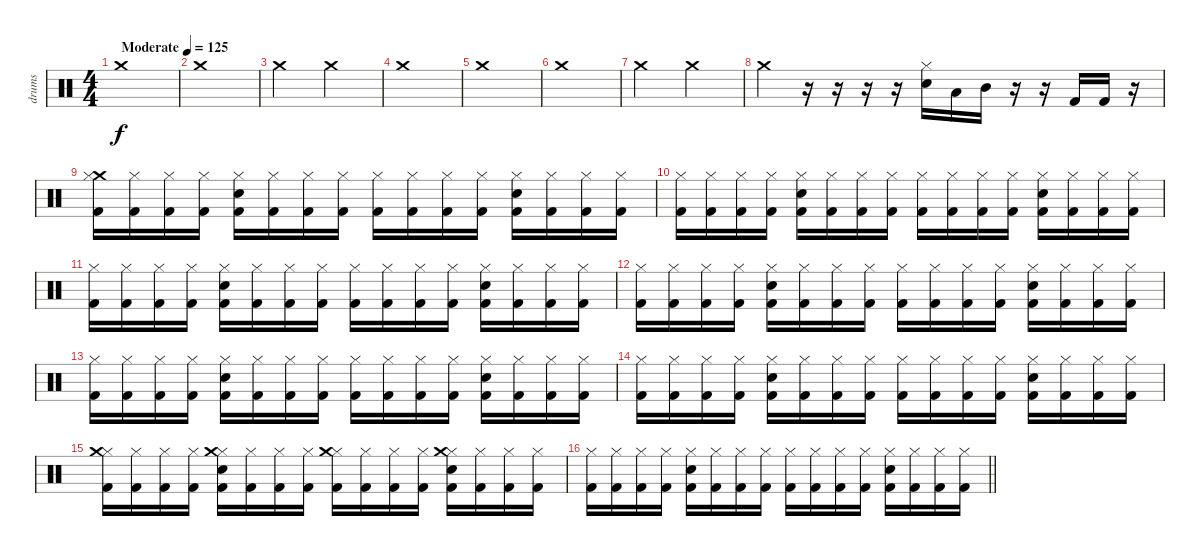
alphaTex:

\track ("drums" "drums") {instrument percussion}
\staff {score}
\articulation defaults
\ts (4 4)
\tempo (125 "Moderate")
\clef neutral
\ks c "Crash medium (hit)".1{dy f}
|
"Crash medium (hit)".1 |
"Crash medium (hit)".2 "Crash medium (hit)".2 |
"Crash medium (hit)".1 |
"Crash medium (hit)".1 |
"Crash medium (hit)".1 |
"Crash medium (hit)".2 "Crash medium (hit)".2 |
"Crash medium (hit)".4 r.16 r.16 r.16 r.16 ("Hi-Hat (closed)" "Snare (hit) 2").16 "Low Floor Tom (hit)".16 "Mid Tom (hit)".16 r.16 r.16 "Kick (hit) 2".16 "Kick (hit) 2".16 r.16 |
("Crash medium (hit)" "Hi-Hat (closed)" "Kick (hit) 2").16 ("Hi-Hat (closed)" "Kick (hit) 2").16 ("Hi-Hat (closed)" "Kick (hit) 2").16 ("Hi-Hat (closed)" "Kick (hit) 2").16 ("Snare (hit) 2" "Hi-Hat (closed)" "Kick (hit) 2").16 ("Hi-Hat (closed)" "Kick (hit) 2").16 ("Hi-Hat (closed)" "Kick (hit) 2").16 ("Hi-Hat (closed)" "Kick (hit) 2").16 ("Hi-Hat (closed)" "Kick (hit) 2").16 ("Hi-Hat (closed)" "Kick (hit) 2").16 ("Hi-Hat (closed)" "Kick (hit) 2").16 ("Hi-Hat (closed)" "Kick (hit) 2").16 ("Snare (hit) 2" "Hi-Hat (closed)" "Kick (hit) 2").16 ("Hi-Hat (closed)" "Kick (hit) 2").16 ("Hi-Hat (closed)" "Kick (hit) 2").16 ("Hi-Hat (closed)" "Kick (hit) 2").16 |
("Hi-Hat (closed)" "Kick (hit) 2").16 ("Hi-Hat (closed)" "Kick (hit) 2").16 ("Hi-Hat (closed)" "Kick (hit) 2").16 ("Hi-Hat (closed)" "Kick (hit) 2").16 ("Snare (hit) 2" "Hi-Hat (closed)" "Kick (hit) 2").16 ("Hi-Hat (closed)" "Kick (hit) 2").16 ("Hi-Hat (closed)" "Kick (hit) 2").16 ("Hi-Hat (closed)" "Kick (hit) 2").16 ("Hi-Hat (closed)" "Kick (hit) 2").16 ("Hi-Hat (closed)" "Kick (hit) 2").16 ("Hi-Hat (closed)" "Kick (hit) 2").16 ("Hi-Hat (closed)" "Kick (hit) 2").16 ("Snare (hit) 2" "Hi-Hat (closed)" "Kick (hit) 2").16 ("Hi-Hat (closed)" "Kick (hit) 2").16 ("Hi-Hat (closed)" "Kick (hit) 2").16 ("Hi-Hat (closed)" "Kick (hit) 2").16 |
("Hi-Hat (closed)" "Kick (hit) 2").16 ("Hi-Hat (closed)" "Kick (hit) 2").16 ("Hi-Hat (closed)" "Kick (hit) 2").16 ("Hi-Hat (closed)" "Kick (hit) 2").16 ("Snare (hit) 2" "Hi-Hat (closed)" "Kick (hit) 2").16 ("Hi-Hat (closed)" "Kick (hit) 2").16 ("Hi-Hat (closed)" "Kick (hit) 2").16 ("Hi-Hat (closed)" "Kick (hit) 2").16 ("Hi-Hat (closed)" "Kick (hit) 2").16 ("Hi-Hat (closed)" "Kick (hit) 2").16 ("Hi-Hat (closed)" "Kick (hit) 2").16 ("Hi-Hat (closed)" "Kick (hit) 2").16 ("Snare (hit) 2" "Hi-Hat (closed)" "Kick (hit) 2").16 ("Hi-Hat (closed)" "Kick (hit) 2").16 ("Hi-Hat (closed)" "Kick (hit) 2").16 ("Hi-Hat (closed)" "Kick (hit) 2").16 |
("Hi-Hat (closed)" "Kick (hit) 2").16 ("Hi-Hat (closed)" "Kick (hit) 2").16 ("Hi-Hat (closed)" "Kick (hit) 2").16 ("Hi-Hat (closed)" "Kick (hit) 2").16 ("Snare (hit) 2" "Hi-Hat (closed)" "Kick (hit) 2").16 ("Hi-Hat (closed)" "Kick (hit) 2").16 ("Hi-Hat (closed)" "Kick (hit) 2").16 ("Hi-Hat (closed)" "Kick (hit) 2").16 ("Hi-Hat (closed)" "Kick (hit) 2").16 ("Hi-Hat (closed)" "Kick (hit) 2").16 ("Hi-Hat (closed)" "Kick (hit) 2").16 ("Hi-Hat (closed)" "Kick (hit) 2").16 ("Snare (hit) 2" "Hi-Hat (closed)" "Kick (hit) 2").16 ("Hi-Hat (closed)" "Kick (hit) 2").16 ("Hi-Hat (closed)" "Kick (hit) 2").16 ("Hi-Hat (closed)" "Kick (hit) 2").16 |
("Hi-Hat (closed)" "Kick (hit) 2").16 ("Hi-Hat (closed)" "Kick (hit) 2").16 ("Hi-Hat (closed)" "Kick (hit) 2").16 ("Hi-Hat (closed)" "Kick (hit) 2").16 ("Snare (hit) 2" "Hi-Hat (closed)" "Kick (hit) 2").16 ("Hi-Hat (closed)" "Kick (hit) 2").16 ("Hi-Hat (closed)" "Kick (hit) 2").16 ("Hi-Hat (closed)" "Kick (hit) 2").16 ("Hi-Hat (closed)" "Kick (hit) 2").16 ("Hi-Hat (closed)" "Kick (hit) 2").16 ("Hi-Hat (closed)" "Kick (hit) 2").16 ("Hi-Hat (closed)" "Kick (hit) 2").16 ("Snare (hit) 2" "Hi-Hat (closed)" "Kick (hit) 2").16 ("Hi-Hat (closed)" "Kick (hit) 2").16 ("Hi-Hat (closed)" "Kick (hit) 2").16 ("Hi-Hat (closed)" "Kick (hit) 2").16 |
("Hi-Hat (closed)" "Kick (hit) 2").16 ("Hi-Hat (closed)" "Kick (hit) 2").16 ("Hi-Hat (closed)" "Kick (hit) 2").16 ("Hi-Hat (closed)" "Kick (hit) 2").16 ("Snare (hit) 2" "Hi-Hat (closed)" "Kick (hit) 2").16 ("Hi-Hat (closed)" "Kick (hit) 2").16 ("Hi-Hat (closed)" "Kick (hit) 2").16 ("Hi-Hat (closed)" "Kick (hit) 2").16 ("Hi-Hat (closed)" "Kick (hit) 2").16 ("Hi-Hat (closed)" "Kick (hit) 2").16 ("Hi-Hat (closed)" "Kick (hit) 2").16 ("Hi-Hat (closed)" "Kick (hit) 2").16 ("Snare (hit) 2" "Hi-Hat (closed)" "Kick (hit) 2").16 ("Hi-Hat (closed)" "Kick (hit) 2").16 ("Hi-Hat (closed)" "Kick (hit) 2").16 ("Hi-Hat (closed)" "Kick (hit) 2").16 |
("Hi-Hat (closed)" "Crash medium (hit)" "Kick (hit) 2").16 ("Hi-Hat (closed)" "Kick (hit) 2").16 ("Hi-Hat (closed)" "Kick (hit) 2").16 ("Hi-Hat (closed)" "Kick (hit) 2").16 ("Snare (hit) 2" "Hi-Hat (closed)" "Crash medium (hit)" "Kick (hit) 2").16 ("Hi-Hat (closed)" "Kick (hit) 2").16 ("Hi-Hat (closed)" "Kick (hit) 2").16 ("Hi-Hat (closed)" "Kick (hit) 2").16 ("Hi-Hat (closed)" "Crash medium (hit)" "Kick (hit) 2").16 ("Hi-Hat (closed)" "Kick (hit) 2").16 ("Hi-Hat (closed)" "Kick (hit) 2").16 ("Hi-Hat (closed)" "Kick (hit) 2").16 ("Snare (hit) 2" "Hi-Hat (closed)" "Crash medium (hit)" "Kick (hit) 2").16 ("Hi-Hat (closed)" "Kick (hit) 2").16 ("Hi-Hat (closed)" "Kick (hit) 2").16 ("Hi-Hat (closed)" "Kick (hit) 2").16 |
\barLineRight lightlight
("Hi-Hat (closed)" "Kick (hit) 2").16 ("Hi-Hat (closed)" "Kick (hit) 2").16 ("Hi-Hat (closed)" "Kick (hit) 2").16 ("Hi-Hat (closed)" "Kick (hit) 2").16 ("Snare (hit) 2" "Hi-Hat (closed)" "Kick (hit) 2").16 ("Hi-Hat (closed)" "Kick (hit) 2").16 ("Hi-Hat (closed)" "Kick (hit) 2").16 ("Hi-Hat (closed)" "Kick (hit) 2").16 ("Hi-Hat (closed)" "Kick (hit) 2").16 ("Hi-Hat (closed)" "Kick (hit) 2").16 ("Hi-Hat (closed)" "Kick (hit) 2").16 ("Hi-Hat (closed)" "Kick (hit) 2").16 ("Snare (hit) 2" "Hi-Hat (closed)" "Kick (hit) 2").16 ("Hi-Hat (closed)" "Kick (hit) 2").16 ("Hi-Hat (closed)" "Kick (hit) 2").16 ("Hi-Hat (closed)" "Kick (hit) 2").16
